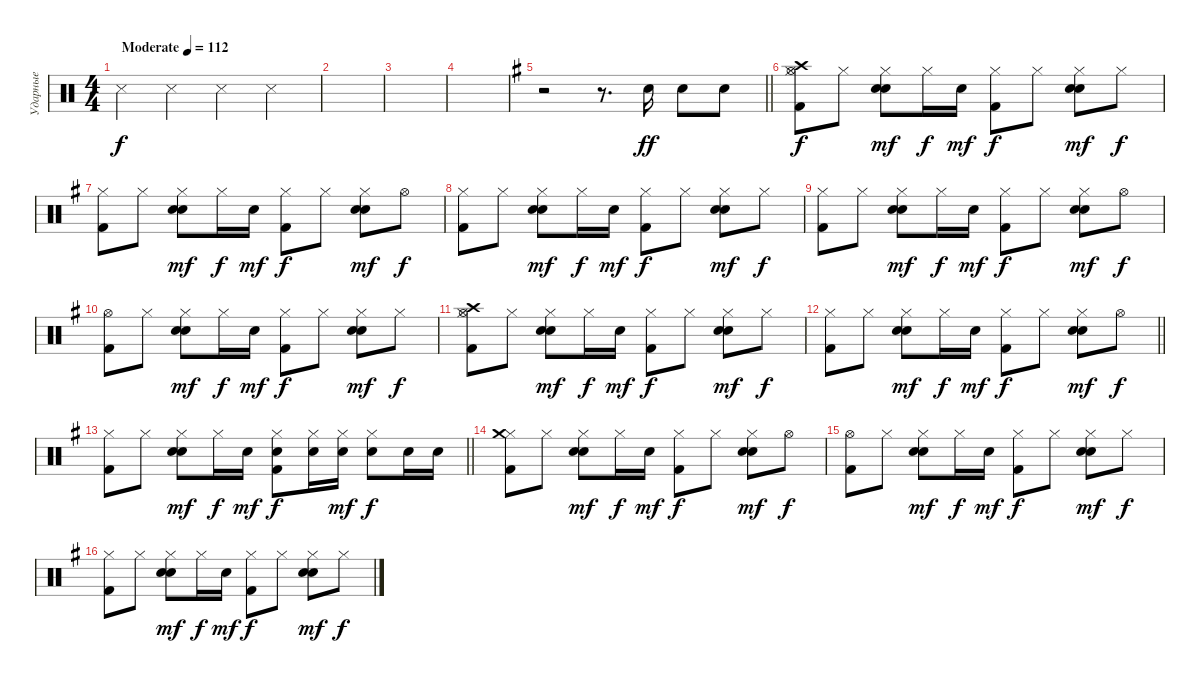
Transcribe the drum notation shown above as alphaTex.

\track ("Ударные" "Ударные") {instrument percussion}
\staff {score}
\articulation defaults
\ts (4 4)
\tempo (112 "Moderate")
\clef neutral
\ks c "Metronome (hit)".4{dy f} "Metronome (hit)".4 "Metronome (hit)".4 "Metronome (hit)".4
|
|
|
|
\barLineRight lightlight
\ks eminor
r.2 r.8{d} "Snare (hit) 2".16{dy ff} "Snare (hit) 2".8 "Snare (hit) 2".8 |
("Hi-Hat (closed)" "Crash high (hit)" "Kick (hit) 2" "Hi-Hat (open)").8{dy f} "Hi-Hat (closed)".8 ("Hi-Hat (closed)" "Electric Snare (hit)" "Snare (hit) 2").8{dy mf} "Hi-Hat (closed)".16{dy f} "Snare (hit) 2".16{dy mf} ("Hi-Hat (closed)" "Kick (hit) 2").8{dy f} "Hi-Hat (closed)".8 ("Hi-Hat (closed)" "Electric Snare (hit)" "Snare (hit) 2").8{dy mf} "Hi-Hat (closed)".8{dy f} |
("Hi-Hat (closed)" "Kick (hit) 2").8 "Hi-Hat (closed)".8 ("Hi-Hat (closed)" "Electric Snare (hit)" "Snare (hit) 2").8{dy mf} "Hi-Hat (closed)".16{dy f} "Snare (hit) 2".16{dy mf} ("Hi-Hat (closed)" "Kick (hit) 2").8{dy f} "Hi-Hat (closed)".8 ("Hi-Hat (closed)" "Electric Snare (hit)" "Snare (hit) 2").8{dy mf} "Hi-Hat (open)".8{dy f} |
("Hi-Hat (closed)" "Kick (hit) 2").8 "Hi-Hat (closed)".8 ("Hi-Hat (closed)" "Electric Snare (hit)" "Snare (hit) 2").8{dy mf} "Hi-Hat (closed)".16{dy f} "Snare (hit) 2".16{dy mf} ("Hi-Hat (closed)" "Kick (hit) 2").8{dy f} "Hi-Hat (closed)".8 ("Hi-Hat (closed)" "Electric Snare (hit)" "Snare (hit) 2").8{dy mf} "Hi-Hat (closed)".8{dy f} |
("Hi-Hat (closed)" "Kick (hit) 2").8 "Hi-Hat (closed)".8 ("Hi-Hat (closed)" "Electric Snare (hit)" "Snare (hit) 2").8{dy mf} "Hi-Hat (closed)".16{dy f} "Snare (hit) 2".16{dy mf} ("Hi-Hat (closed)" "Kick (hit) 2").8{dy f} "Hi-Hat (closed)".8 ("Hi-Hat (closed)" "Electric Snare (hit)" "Snare (hit) 2").8{dy mf} "Hi-Hat (open)".8{dy f} |
("Hi-Hat (open)" "Kick (hit) 2").8 "Hi-Hat (closed)".8 ("Hi-Hat (closed)" "Electric Snare (hit)" "Snare (hit) 2").8{dy mf} "Hi-Hat (closed)".16{dy f} "Snare (hit) 2".16{dy mf} ("Hi-Hat (closed)" "Kick (hit) 2").8{dy f} "Hi-Hat (closed)".8 ("Hi-Hat (closed)" "Electric Snare (hit)" "Snare (hit) 2").8{dy mf} "Hi-Hat (closed)".8{dy f} |
("Hi-Hat (closed)" "Crash high (hit)" "Kick (hit) 2" "Hi-Hat (open)").8 "Hi-Hat (closed)".8 ("Hi-Hat (closed)" "Electric Snare (hit)" "Snare (hit) 2").8{dy mf} "Hi-Hat (closed)".16{dy f} "Snare (hit) 2".16{dy mf} ("Hi-Hat (closed)" "Kick (hit) 2").8{dy f} "Hi-Hat (closed)".8 ("Hi-Hat (closed)" "Electric Snare (hit)" "Snare (hit) 2").8{dy mf} "Hi-Hat (closed)".8{dy f} |
\barLineRight lightlight
("Hi-Hat (closed)" "Kick (hit) 2").8 "Hi-Hat (closed)".8 ("Hi-Hat (closed)" "Electric Snare (hit)" "Snare (hit) 2").8{dy mf} "Hi-Hat (closed)".16{dy f} "Snare (hit) 2".16{dy mf} ("Hi-Hat (closed)" "Kick (hit) 2").8{dy f} "Hi-Hat (closed)".8 ("Hi-Hat (closed)" "Electric Snare (hit)" "Snare (hit) 2").8{dy mf} "Hi-Hat (open)".8{dy f} |
\barLineRight lightlight
("Hi-Hat (closed)" "Kick (hit) 2").8 "Hi-Hat (closed)".8 ("Hi-Hat (closed)" "Electric Snare (hit)" "Snare (hit) 2").8{dy mf} "Hi-Hat (closed)".16{dy f} "Snare (hit) 2".16{dy mf} ("Hi-Hat (closed)" "Kick (hit) 2" "Snare (hit) 2").8{dy f} ("Hi-Hat (closed)" "Snare (hit) 2").16 ("Hi-Hat (closed)" "Snare (hit) 2").16{dy mf} ("Hi-Hat (closed)" "Snare (hit) 2").8{dy f} "Snare (hit) 2".16 "Snare (hit) 2".16 |
("Hi-Hat (closed)" "Kick (hit) 2" "Crash medium (hit)").8 "Hi-Hat (closed)".8 ("Hi-Hat (closed)" "Electric Snare (hit)" "Snare (hit) 2").8{dy mf} "Hi-Hat (closed)".16{dy f} "Snare (hit) 2".16{dy mf} ("Hi-Hat (closed)" "Kick (hit) 2").8{dy f} "Hi-Hat (closed)".8 ("Hi-Hat (closed)" "Electric Snare (hit)" "Snare (hit) 2").8{dy mf} "Hi-Hat (open)".8{dy f} |
("Hi-Hat (open)" "Kick (hit) 2").8 "Hi-Hat (closed)".8 ("Hi-Hat (closed)" "Electric Snare (hit)" "Snare (hit) 2").8{dy mf} "Hi-Hat (closed)".16{dy f} "Snare (hit) 2".16{dy mf} ("Hi-Hat (closed)" "Kick (hit) 2").8{dy f} "Hi-Hat (closed)".8 ("Hi-Hat (closed)" "Electric Snare (hit)" "Snare (hit) 2").8{dy mf} "Hi-Hat (closed)".8{dy f} |
("Hi-Hat (closed)" "Kick (hit) 2").8 "Hi-Hat (closed)".8 ("Hi-Hat (closed)" "Electric Snare (hit)" "Snare (hit) 2").8{dy mf} "Hi-Hat (closed)".16{dy f} "Snare (hit) 2".16{dy mf} ("Hi-Hat (closed)" "Kick (hit) 2").8{dy f} "Hi-Hat (closed)".8 ("Hi-Hat (closed)" "Electric Snare (hit)" "Snare (hit) 2").8{dy mf} "Hi-Hat (closed)".8{dy f}
